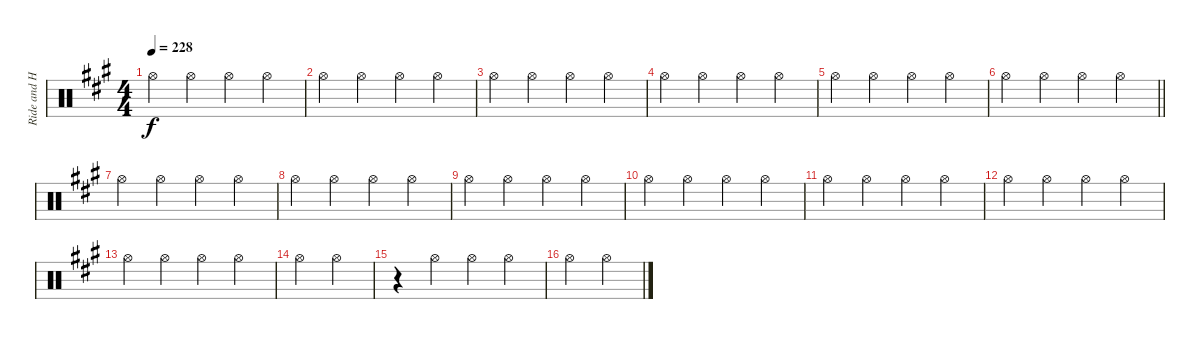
\track ("Ride and Hi Hat" "Ride and H") {instrument percussion}
\staff {score}
\articulation defaults
\ts (4 4)
\tempo 228
\clef neutral
\ks a "Hi-Hat (open)".4{dy f} "Hi-Hat (open)".4 "Hi-Hat (open)".4 "Hi-Hat (open)".4
|
"Hi-Hat (open)".4 "Hi-Hat (open)".4 "Hi-Hat (open)".4 "Hi-Hat (open)".4 |
"Hi-Hat (open)".4 "Hi-Hat (open)".4 "Hi-Hat (open)".4 "Hi-Hat (open)".4 |
"Hi-Hat (open)".4 "Hi-Hat (open)".4 "Hi-Hat (open)".4 "Hi-Hat (open)".4 |
"Hi-Hat (open)".4 "Hi-Hat (open)".4 "Hi-Hat (open)".4 "Hi-Hat (open)".4 |
\barLineRight lightlight "Hi-Hat (open)".4 "Hi-Hat (open)".4 "Hi-Hat (open)".4 "Hi-Hat (open)".4
|
"Hi-Hat (open)".4 "Hi-Hat (open)".4 "Hi-Hat (open)".4 "Hi-Hat (open)".4 |
"Hi-Hat (open)".4 "Hi-Hat (open)".4 "Hi-Hat (open)".4 "Hi-Hat (open)".4 |
"Hi-Hat (open)".4 "Hi-Hat (open)".4 "Hi-Hat (open)".4 "Hi-Hat (open)".4 |
"Hi-Hat (open)".4 "Hi-Hat (open)".4 "Hi-Hat (open)".4 "Hi-Hat (open)".4 |
"Hi-Hat (open)".4 "Hi-Hat (open)".4 "Hi-Hat (open)".4 "Hi-Hat (open)".4 |
"Hi-Hat (open)".4 "Hi-Hat (open)".4 "Hi-Hat (open)".4 "Hi-Hat (open)".4 |
"Hi-Hat (open)".4 "Hi-Hat (open)".4 "Hi-Hat (open)".4 "Hi-Hat (open)".4 |
"Hi-Hat (open)".4 "Hi-Hat (open)".4 |
r.4 "Hi-Hat (open)".4 "Hi-Hat (open)".4 "Hi-Hat (open)".4 |
"Hi-Hat (open)".4 "Hi-Hat (open)".4
